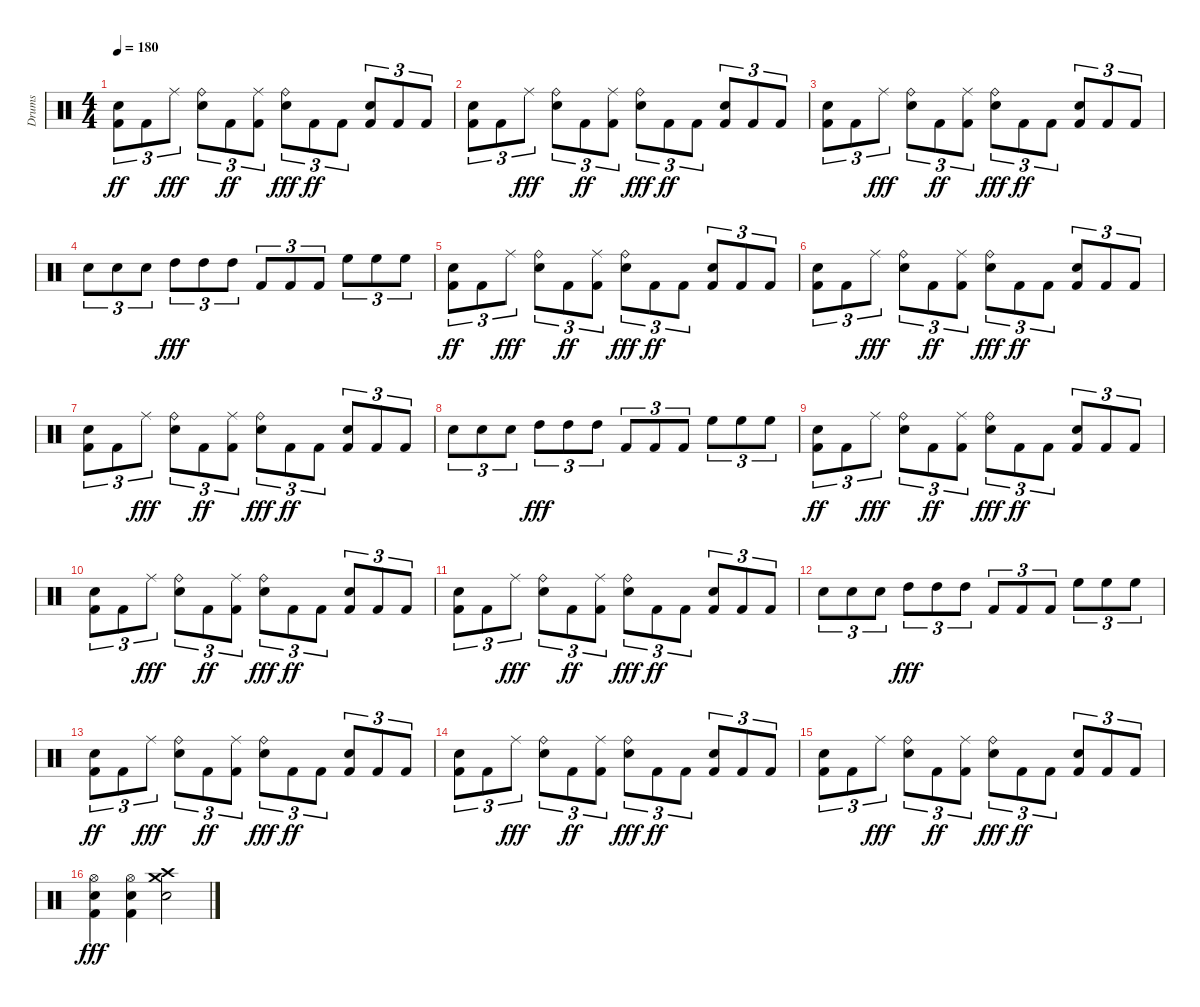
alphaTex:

\track ("Drums" "Drums") {instrument percussion}
\staff {score}
\articulation defaults
\ts (4 4)
\tempo 180
\clef neutral
\ks c
("Electric Snare (hit)" "Kick (hit) 2").8{tu (3 2) dy ff} "Kick (hit) 2".8{tu (3 2)} "Ride (middle)".8{tu (3 2) dy fff} ("Electric Snare (hit)" "Ride (bell)").8{tu (3 2)} "Kick (hit) 2".8{tu (3 2) dy ff} ("Ride (middle)" "Kick (hit) 2").8{tu (3 2)} ("Electric Snare (hit)" "Ride (bell)").8{tu (3 2) dy fff} "Kick (hit) 2".8{tu (3 2) dy ff} "Kick (hit) 2".8{tu (3 2)} ("Electric Snare (hit)" "Kick (hit) 2").8{tu (3 2)} "Kick (hit) 2".8{tu (3 2)} "Kick (hit) 2".8{tu (3 2)} |
("Electric Snare (hit)" "Kick (hit) 2").8{tu (3 2)} "Kick (hit) 2".8{tu (3 2)} "Ride (middle)".8{tu (3 2) dy fff} ("Electric Snare (hit)" "Ride (bell)").8{tu (3 2)} "Kick (hit) 2".8{tu (3 2) dy ff} ("Ride (middle)" "Kick (hit) 2").8{tu (3 2)} ("Electric Snare (hit)" "Ride (bell)").8{tu (3 2) dy fff} "Kick (hit) 2".8{tu (3 2) dy ff} "Kick (hit) 2".8{tu (3 2)} ("Electric Snare (hit)" "Kick (hit) 2").8{tu (3 2)} "Kick (hit) 2".8{tu (3 2)} "Kick (hit) 2".8{tu (3 2)} |
("Electric Snare (hit)" "Kick (hit) 2").8{tu (3 2)} "Kick (hit) 2".8{tu (3 2)} "Ride (middle)".8{tu (3 2) dy fff} ("Electric Snare (hit)" "Ride (bell)").8{tu (3 2)} "Kick (hit) 2".8{tu (3 2) dy ff} ("Ride (middle)" "Kick (hit) 2").8{tu (3 2)} ("Electric Snare (hit)" "Ride (bell)").8{tu (3 2) dy fff} "Kick (hit) 2".8{tu (3 2) dy ff} "Kick (hit) 2".8{tu (3 2)} ("Electric Snare (hit)" "Kick (hit) 2").8{tu (3 2)} "Kick (hit) 2".8{tu (3 2)} "Kick (hit) 2".8{tu (3 2)} |
"Electric Snare (hit)".8{tu (3 2)} "Electric Snare (hit)".8{tu (3 2)} "Electric Snare (hit)".8{tu (3 2)} "High Tom (hit)".8{tu (3 2) dy fff} "High Tom (hit)".8{tu (3 2)} "High Tom (hit)".8{tu (3 2)} "Kick (hit) 2".8{tu (3 2)} "Kick (hit) 2".8{tu (3 2)} "Kick (hit) 2".8{tu (3 2)} "High Floor Tom (hit)".8{tu (3 2)} "High Floor Tom (hit)".8{tu (3 2)} "High Floor Tom (hit)".8{tu (3 2)} |
("Electric Snare (hit)" "Kick (hit) 2").8{tu (3 2) dy ff} "Kick (hit) 2".8{tu (3 2)} "Ride (middle)".8{tu (3 2) dy fff} ("Electric Snare (hit)" "Ride (bell)").8{tu (3 2)} "Kick (hit) 2".8{tu (3 2) dy ff} ("Ride (middle)" "Kick (hit) 2").8{tu (3 2)} ("Electric Snare (hit)" "Ride (bell)").8{tu (3 2) dy fff} "Kick (hit) 2".8{tu (3 2) dy ff} "Kick (hit) 2".8{tu (3 2)} ("Electric Snare (hit)" "Kick (hit) 2").8{tu (3 2)} "Kick (hit) 2".8{tu (3 2)} "Kick (hit) 2".8{tu (3 2)} |
("Electric Snare (hit)" "Kick (hit) 2").8{tu (3 2)} "Kick (hit) 2".8{tu (3 2)} "Ride (middle)".8{tu (3 2) dy fff} ("Electric Snare (hit)" "Ride (bell)").8{tu (3 2)} "Kick (hit) 2".8{tu (3 2) dy ff} ("Ride (middle)" "Kick (hit) 2").8{tu (3 2)} ("Electric Snare (hit)" "Ride (bell)").8{tu (3 2) dy fff} "Kick (hit) 2".8{tu (3 2) dy ff} "Kick (hit) 2".8{tu (3 2)} ("Electric Snare (hit)" "Kick (hit) 2").8{tu (3 2)} "Kick (hit) 2".8{tu (3 2)} "Kick (hit) 2".8{tu (3 2)} |
("Electric Snare (hit)" "Kick (hit) 2").8{tu (3 2)} "Kick (hit) 2".8{tu (3 2)} "Ride (middle)".8{tu (3 2) dy fff} ("Electric Snare (hit)" "Ride (bell)").8{tu (3 2)} "Kick (hit) 2".8{tu (3 2) dy ff} ("Ride (middle)" "Kick (hit) 2").8{tu (3 2)} ("Electric Snare (hit)" "Ride (bell)").8{tu (3 2) dy fff} "Kick (hit) 2".8{tu (3 2) dy ff} "Kick (hit) 2".8{tu (3 2)} ("Electric Snare (hit)" "Kick (hit) 2").8{tu (3 2)} "Kick (hit) 2".8{tu (3 2)} "Kick (hit) 2".8{tu (3 2)} |
"Electric Snare (hit)".8{tu (3 2)} "Electric Snare (hit)".8{tu (3 2)} "Electric Snare (hit)".8{tu (3 2)} "High Tom (hit)".8{tu (3 2) dy fff} "High Tom (hit)".8{tu (3 2)} "High Tom (hit)".8{tu (3 2)} "Kick (hit) 2".8{tu (3 2)} "Kick (hit) 2".8{tu (3 2)} "Kick (hit) 2".8{tu (3 2)} "High Floor Tom (hit)".8{tu (3 2)} "High Floor Tom (hit)".8{tu (3 2)} "High Floor Tom (hit)".8{tu (3 2)} |
("Electric Snare (hit)" "Kick (hit) 2").8{tu (3 2) dy ff} "Kick (hit) 2".8{tu (3 2)} "Ride (middle)".8{tu (3 2) dy fff} ("Electric Snare (hit)" "Ride (bell)").8{tu (3 2)} "Kick (hit) 2".8{tu (3 2) dy ff} ("Ride (middle)" "Kick (hit) 2").8{tu (3 2)} ("Electric Snare (hit)" "Ride (bell)").8{tu (3 2) dy fff} "Kick (hit) 2".8{tu (3 2) dy ff} "Kick (hit) 2".8{tu (3 2)} ("Electric Snare (hit)" "Kick (hit) 2").8{tu (3 2)} "Kick (hit) 2".8{tu (3 2)} "Kick (hit) 2".8{tu (3 2)} |
("Electric Snare (hit)" "Kick (hit) 2").8{tu (3 2)} "Kick (hit) 2".8{tu (3 2)} "Ride (middle)".8{tu (3 2) dy fff} ("Electric Snare (hit)" "Ride (bell)").8{tu (3 2)} "Kick (hit) 2".8{tu (3 2) dy ff} ("Ride (middle)" "Kick (hit) 2").8{tu (3 2)} ("Electric Snare (hit)" "Ride (bell)").8{tu (3 2) dy fff} "Kick (hit) 2".8{tu (3 2) dy ff} "Kick (hit) 2".8{tu (3 2)} ("Electric Snare (hit)" "Kick (hit) 2").8{tu (3 2)} "Kick (hit) 2".8{tu (3 2)} "Kick (hit) 2".8{tu (3 2)} |
("Electric Snare (hit)" "Kick (hit) 2").8{tu (3 2)} "Kick (hit) 2".8{tu (3 2)} "Ride (middle)".8{tu (3 2) dy fff} ("Electric Snare (hit)" "Ride (bell)").8{tu (3 2)} "Kick (hit) 2".8{tu (3 2) dy ff} ("Ride (middle)" "Kick (hit) 2").8{tu (3 2)} ("Electric Snare (hit)" "Ride (bell)").8{tu (3 2) dy fff} "Kick (hit) 2".8{tu (3 2) dy ff} "Kick (hit) 2".8{tu (3 2)} ("Electric Snare (hit)" "Kick (hit) 2").8{tu (3 2)} "Kick (hit) 2".8{tu (3 2)} "Kick (hit) 2".8{tu (3 2)} |
"Electric Snare (hit)".8{tu (3 2)} "Electric Snare (hit)".8{tu (3 2)} "Electric Snare (hit)".8{tu (3 2)} "High Tom (hit)".8{tu (3 2) dy fff} "High Tom (hit)".8{tu (3 2)} "High Tom (hit)".8{tu (3 2)} "Kick (hit) 2".8{tu (3 2)} "Kick (hit) 2".8{tu (3 2)} "Kick (hit) 2".8{tu (3 2)} "High Floor Tom (hit)".8{tu (3 2)} "High Floor Tom (hit)".8{tu (3 2)} "High Floor Tom (hit)".8{tu (3 2)} |
("Electric Snare (hit)" "Kick (hit) 2").8{tu (3 2) dy ff} "Kick (hit) 2".8{tu (3 2)} "Ride (middle)".8{tu (3 2) dy fff} ("Electric Snare (hit)" "Ride (bell)").8{tu (3 2)} "Kick (hit) 2".8{tu (3 2) dy ff} ("Ride (middle)" "Kick (hit) 2").8{tu (3 2)} ("Electric Snare (hit)" "Ride (bell)").8{tu (3 2) dy fff} "Kick (hit) 2".8{tu (3 2) dy ff} "Kick (hit) 2".8{tu (3 2)} ("Electric Snare (hit)" "Kick (hit) 2").8{tu (3 2)} "Kick (hit) 2".8{tu (3 2)} "Kick (hit) 2".8{tu (3 2)} |
("Electric Snare (hit)" "Kick (hit) 2").8{tu (3 2)} "Kick (hit) 2".8{tu (3 2)} "Ride (middle)".8{tu (3 2) dy fff} ("Electric Snare (hit)" "Ride (bell)").8{tu (3 2)} "Kick (hit) 2".8{tu (3 2) dy ff} ("Ride (middle)" "Kick (hit) 2").8{tu (3 2)} ("Electric Snare (hit)" "Ride (bell)").8{tu (3 2) dy fff} "Kick (hit) 2".8{tu (3 2) dy ff} "Kick (hit) 2".8{tu (3 2)} ("Electric Snare (hit)" "Kick (hit) 2").8{tu (3 2)} "Kick (hit) 2".8{tu (3 2)} "Kick (hit) 2".8{tu (3 2)} |
("Electric Snare (hit)" "Kick (hit) 2").8{tu (3 2)} "Kick (hit) 2".8{tu (3 2)} "Ride (middle)".8{tu (3 2) dy fff} ("Electric Snare (hit)" "Ride (bell)").8{tu (3 2)} "Kick (hit) 2".8{tu (3 2) dy ff} ("Ride (middle)" "Kick (hit) 2").8{tu (3 2)} ("Electric Snare (hit)" "Ride (bell)").8{tu (3 2) dy fff} "Kick (hit) 2".8{tu (3 2) dy ff} "Kick (hit) 2".8{tu (3 2)} ("Electric Snare (hit)" "Kick (hit) 2").8{tu (3 2)} "Kick (hit) 2".8{tu (3 2)} "Kick (hit) 2".8{tu (3 2)} |
("Kick (hit) 2" "Hi-Hat (open)" "Electric Snare (hit)").4{dy fff} ("Kick (hit) 2" "Hi-Hat (open)" "Electric Snare (hit)").4 ("Crash high (hit)" "Crash medium (hit)" "Electric Snare (hit)").2
